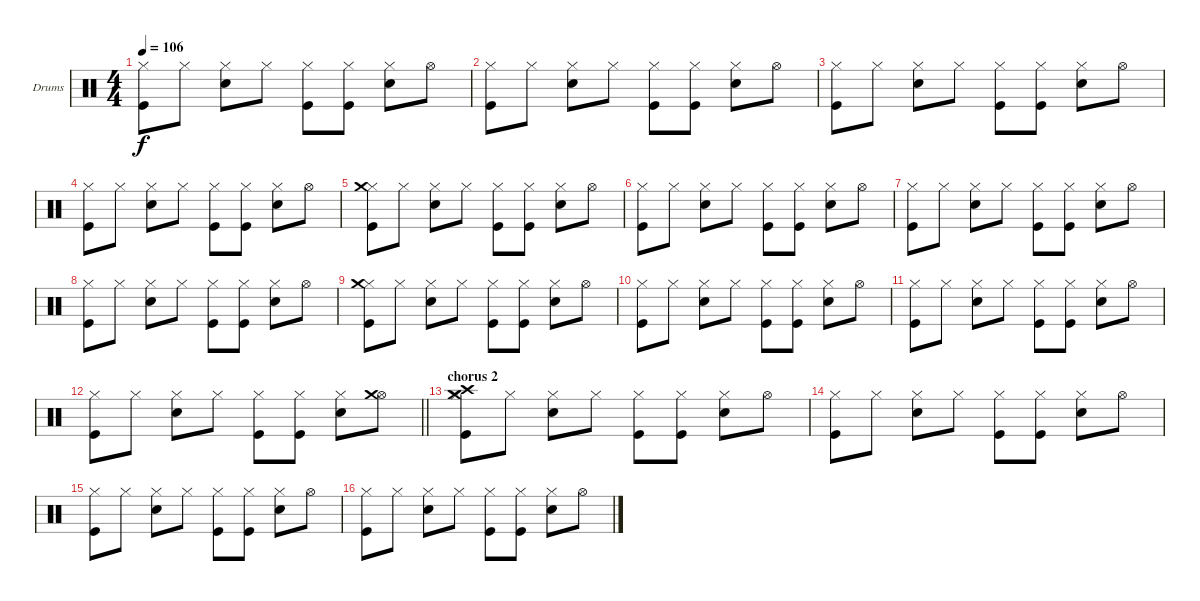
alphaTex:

\bracketExtendMode groupsimilarinstruments
\firstSystemTrackNameOrientation horizontal
\otherSystemsTrackNameOrientation horizontal
\track ("Drumkit" "Drums") {instrument percussion}
\staff {score}
\articulation defaults
\ts (4 4)
\tempo 106
\clef neutral
\ks c
("Hi-Hat (closed)" "Kick (hit)").8{dy f} "Hi-Hat (closed)".8 ("Hi-Hat (closed)" "Snare (hit) 2").8 "Hi-Hat (closed)".8 ("Hi-Hat (closed)" "Kick (hit)").8 ("Hi-Hat (closed)" "Kick (hit)").8 ("Hi-Hat (closed)" "Snare (hit) 2").8 "Hi-Hat (open)".8 |
("Hi-Hat (closed)" "Kick (hit)").8 "Hi-Hat (closed)".8 ("Hi-Hat (closed)" "Snare (hit) 2").8 "Hi-Hat (closed)".8 ("Hi-Hat (closed)" "Kick (hit)").8 ("Hi-Hat (closed)" "Kick (hit)").8 ("Hi-Hat (closed)" "Snare (hit) 2").8 "Hi-Hat (open)".8 |
("Hi-Hat (closed)" "Kick (hit)").8 "Hi-Hat (closed)".8 ("Hi-Hat (closed)" "Snare (hit) 2").8 "Hi-Hat (closed)".8 ("Hi-Hat (closed)" "Kick (hit)").8 ("Hi-Hat (closed)" "Kick (hit)").8 ("Hi-Hat (closed)" "Snare (hit) 2").8 "Hi-Hat (open)".8 |
("Hi-Hat (closed)" "Kick (hit)").8 "Hi-Hat (closed)".8 ("Hi-Hat (closed)" "Snare (hit) 2").8 "Hi-Hat (closed)".8 ("Hi-Hat (closed)" "Kick (hit)").8 ("Hi-Hat (closed)" "Kick (hit)").8 ("Hi-Hat (closed)" "Snare (hit) 2").8 "Hi-Hat (open)".8 |
("Hi-Hat (closed)" "Crash medium (hit)" "Kick (hit)").8 "Hi-Hat (closed)".8 ("Hi-Hat (closed)" "Snare (hit) 2").8 "Hi-Hat (closed)".8 ("Hi-Hat (closed)" "Kick (hit)").8 ("Hi-Hat (closed)" "Kick (hit)").8 ("Hi-Hat (closed)" "Snare (hit) 2").8 "Hi-Hat (open)".8 |
("Hi-Hat (closed)" "Kick (hit)").8 "Hi-Hat (closed)".8 ("Hi-Hat (closed)" "Snare (hit) 2").8 "Hi-Hat (closed)".8 ("Hi-Hat (closed)" "Kick (hit)").8 ("Hi-Hat (closed)" "Kick (hit)").8 ("Hi-Hat (closed)" "Snare (hit) 2").8 "Hi-Hat (open)".8 |
("Hi-Hat (closed)" "Kick (hit)").8 "Hi-Hat (closed)".8 ("Hi-Hat (closed)" "Snare (hit) 2").8 "Hi-Hat (closed)".8 ("Hi-Hat (closed)" "Kick (hit)").8 ("Hi-Hat (closed)" "Kick (hit)").8 ("Hi-Hat (closed)" "Snare (hit) 2").8 "Hi-Hat (open)".8 |
("Hi-Hat (closed)" "Kick (hit)").8 "Hi-Hat (closed)".8 ("Hi-Hat (closed)" "Snare (hit) 2").8 "Hi-Hat (closed)".8 ("Hi-Hat (closed)" "Kick (hit)").8 ("Hi-Hat (closed)" "Kick (hit)").8 ("Hi-Hat (closed)" "Snare (hit) 2").8 "Hi-Hat (open)".8 |
("Hi-Hat (closed)" "Crash medium (hit)" "Kick (hit)").8 "Hi-Hat (closed)".8 ("Hi-Hat (closed)" "Snare (hit) 2").8 "Hi-Hat (closed)".8 ("Hi-Hat (closed)" "Kick (hit)").8 ("Hi-Hat (closed)" "Kick (hit)").8 ("Hi-Hat (closed)" "Snare (hit) 2").8 "Hi-Hat (open)".8 |
("Hi-Hat (closed)" "Kick (hit)").8 "Hi-Hat (closed)".8 ("Hi-Hat (closed)" "Snare (hit) 2").8 "Hi-Hat (closed)".8 ("Hi-Hat (closed)" "Kick (hit)").8 ("Hi-Hat (closed)" "Kick (hit)").8 ("Hi-Hat (closed)" "Snare (hit) 2").8 "Hi-Hat (open)".8 |
("Hi-Hat (closed)" "Kick (hit)").8 "Hi-Hat (closed)".8 ("Hi-Hat (closed)" "Snare (hit) 2").8 "Hi-Hat (closed)".8 ("Hi-Hat (closed)" "Kick (hit)").8 ("Hi-Hat (closed)" "Kick (hit)").8 ("Hi-Hat (closed)" "Snare (hit) 2").8 "Hi-Hat (open)".8 |
\barLineRight lightlight
("Hi-Hat (closed)" "Kick (hit)").8 "Hi-Hat (closed)".8 ("Hi-Hat (closed)" "Snare (hit) 2").8 "Hi-Hat (closed)".8 ("Hi-Hat (closed)" "Kick (hit)").8 ("Hi-Hat (closed)" "Kick (hit)").8 ("Hi-Hat (closed)" "Snare (hit) 2").8 ("Hi-Hat (open)" "Crash medium (hit)").8 |
\section ("" "chorus 2")
("Hi-Hat (closed)" "Crash high (hit)" "Crash medium (hit)" "Kick (hit)").8 "Hi-Hat (closed)".8 ("Hi-Hat (closed)" "Snare (hit) 2").8 "Hi-Hat (closed)".8 ("Hi-Hat (closed)" "Kick (hit)").8 ("Hi-Hat (closed)" "Kick (hit)").8 ("Hi-Hat (closed)" "Snare (hit) 2").8 "Hi-Hat (open)".8 |
("Hi-Hat (closed)" "Kick (hit)").8 "Hi-Hat (closed)".8 ("Hi-Hat (closed)" "Snare (hit) 2").8 "Hi-Hat (closed)".8 ("Hi-Hat (closed)" "Kick (hit)").8 ("Hi-Hat (closed)" "Kick (hit)").8 ("Hi-Hat (closed)" "Snare (hit) 2").8 "Hi-Hat (open)".8 |
("Hi-Hat (closed)" "Kick (hit)").8 "Hi-Hat (closed)".8 ("Hi-Hat (closed)" "Snare (hit) 2").8 "Hi-Hat (closed)".8 ("Hi-Hat (closed)" "Kick (hit)").8 ("Hi-Hat (closed)" "Kick (hit)").8 ("Hi-Hat (closed)" "Snare (hit) 2").8 "Hi-Hat (open)".8 |
("Hi-Hat (closed)" "Kick (hit)").8 "Hi-Hat (closed)".8 ("Hi-Hat (closed)" "Snare (hit) 2").8 "Hi-Hat (closed)".8 ("Hi-Hat (closed)" "Kick (hit)").8 ("Hi-Hat (closed)" "Kick (hit)").8 ("Hi-Hat (closed)" "Snare (hit) 2").8 "Hi-Hat (open)".8
